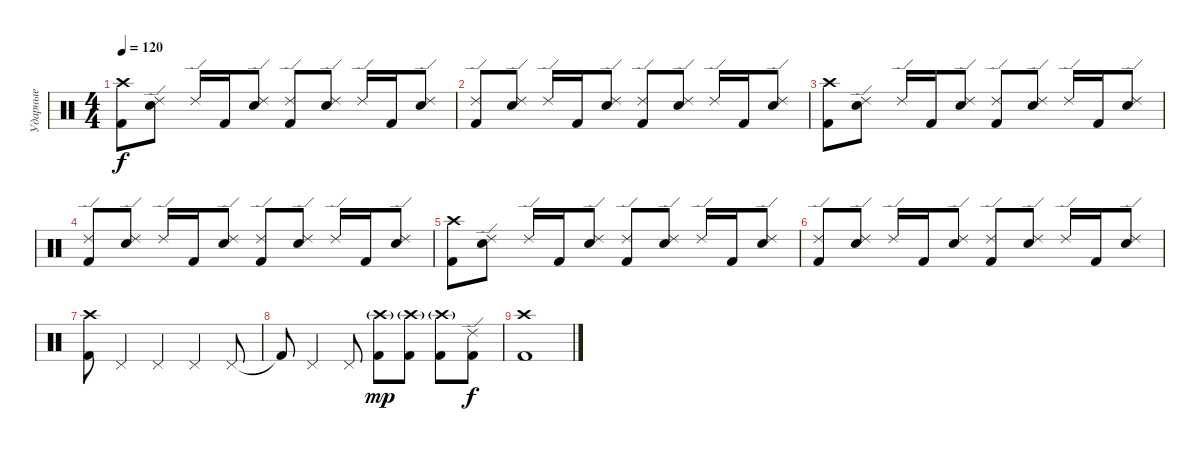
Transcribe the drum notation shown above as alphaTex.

\track ("Ударные" "Ударные") {instrument percussion}
\staff {score}
\articulation defaults
\ts (4 4)
\tempo 120
\clef neutral
\ks c
("Kick (hit) 2" "Crash high (hit)").8{dy f} ("Electric Snare (hit)" "Ride (edge) 2").8 "Ride (edge) 2".16 "Kick (hit) 2".16 ("Electric Snare (hit)" "Ride (edge) 2").8 ("Kick (hit) 2" "Ride (edge) 2").8 ("Electric Snare (hit)" "Ride (edge) 2").8 "Ride (edge) 2".16 "Kick (hit) 2".16 ("Electric Snare (hit)" "Ride (edge) 2").8 |
("Kick (hit) 2" "Ride (edge) 2").8 ("Electric Snare (hit)" "Ride (edge) 2").8 "Ride (edge) 2".16 "Kick (hit) 2".16 ("Electric Snare (hit)" "Ride (edge) 2").8 ("Kick (hit) 2" "Ride (edge) 2").8 ("Electric Snare (hit)" "Ride (edge) 2").8 "Ride (edge) 2".16 "Kick (hit) 2".16 ("Electric Snare (hit)" "Ride (edge) 2").8 |
("Kick (hit) 2" "Crash high (hit)").8 ("Electric Snare (hit)" "Ride (edge) 2").8 "Ride (edge) 2".16 "Kick (hit) 2".16 ("Electric Snare (hit)" "Ride (edge) 2").8 ("Kick (hit) 2" "Ride (edge) 2").8 ("Electric Snare (hit)" "Ride (edge) 2").8 "Ride (edge) 2".16 "Kick (hit) 2".16 ("Electric Snare (hit)" "Ride (edge) 2").8 |
("Kick (hit) 2" "Ride (edge) 2").8 ("Electric Snare (hit)" "Ride (edge) 2").8 "Ride (edge) 2".16 "Kick (hit) 2".16 ("Electric Snare (hit)" "Ride (edge) 2").8 ("Kick (hit) 2" "Ride (edge) 2").8 ("Electric Snare (hit)" "Ride (edge) 2").8 "Ride (edge) 2".16 "Kick (hit) 2".16 ("Electric Snare (hit)" "Ride (edge) 2").8 |
("Kick (hit) 2" "Crash high (hit)").8 ("Electric Snare (hit)" "Ride (edge) 2").8 "Ride (edge) 2".16 "Kick (hit) 2".16 ("Electric Snare (hit)" "Ride (edge) 2").8 ("Kick (hit) 2" "Ride (edge) 2").8 ("Electric Snare (hit)" "Ride (edge) 2").8 "Ride (edge) 2".16 "Kick (hit) 2".16 ("Electric Snare (hit)" "Ride (edge) 2").8 |
("Kick (hit) 2" "Ride (edge) 2").8 ("Electric Snare (hit)" "Ride (edge) 2").8 "Ride (edge) 2".16 "Kick (hit) 2".16 ("Electric Snare (hit)" "Ride (edge) 2").8 ("Kick (hit) 2" "Ride (edge) 2").8 ("Electric Snare (hit)" "Ride (edge) 2").8 "Ride (edge) 2".16 "Kick (hit) 2".16 ("Electric Snare (hit)" "Ride (edge) 2").8 |
("Kick (hit) 2" "Crash high (hit)").8 "Pedal Hi-Hat (hit)".4 "Pedal Hi-Hat (hit)".4 "Pedal Hi-Hat (hit)".4 "Pedal Hi-Hat (hit)".8 |
"Kick (hit) 2"{t}.8 "Pedal Hi-Hat (hit)".4 "Pedal Hi-Hat (hit)".8 ("Kick (hit) 2" "Crash high (hit)"{g}).8{dy mp} ("Kick (hit) 2" "Crash high (hit)"{g}).8 ("Kick (hit) 2" "Crash high (hit)"{g}).8 ("Kick (hit) 2" "Ride (edge) 2").8{dy f} |
("Kick (hit) 2" "Crash high (hit)").1
